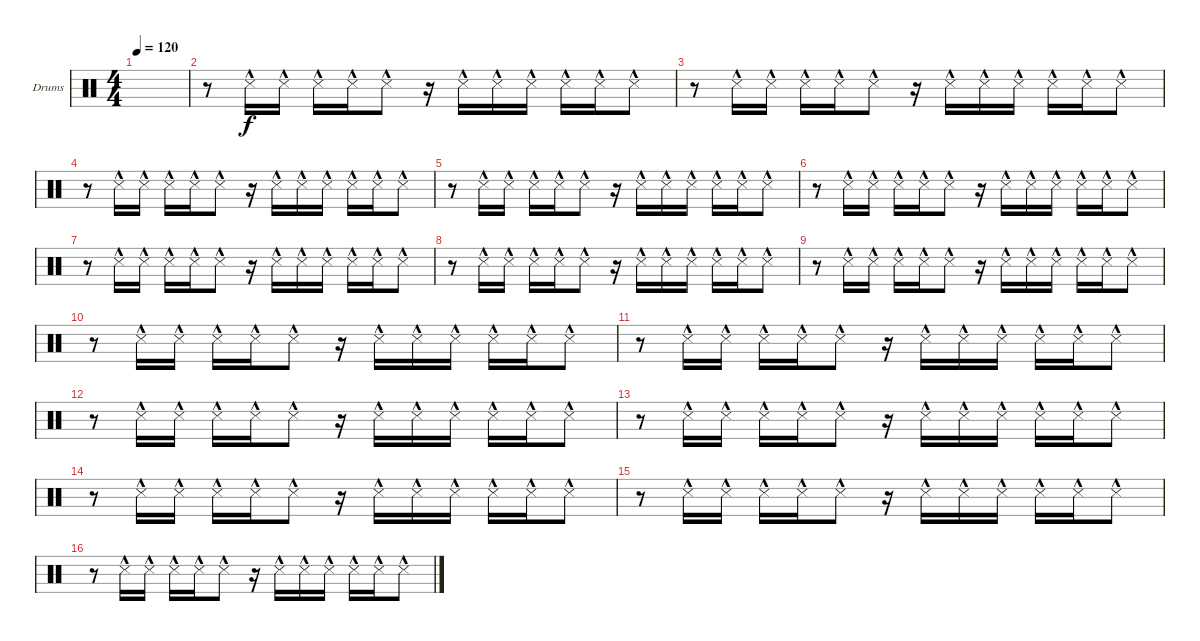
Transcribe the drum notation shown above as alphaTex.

\defaultSystemsLayout 4
\bracketExtendMode nobrackets
\firstSystemTrackNameOrientation horizontal
\otherSystemsTrackNameOrientation horizontal
\track ("Drumkit" "Drums") {instrument percussion}
\staff {score}
\articulation defaults
\ts (4 4)
\tempo 120
\clef neutral
\ks c
|
r.8 "Snare (side stick) 3"{hac}.16 "Snare (side stick) 3"{hac}.16 "Snare (side stick) 3"{hac}.16 "Snare (side stick) 3"{hac}.16 "Snare (side stick) 3"{hac}.8 r.16 "Snare (side stick) 3"{hac}.16 "Snare (side stick) 3"{hac}.16 "Snare (side stick) 3"{hac}.16 "Snare (side stick) 3"{hac}.16 "Snare (side stick) 3"{hac}.16 "Snare (side stick) 3"{hac}.8 |
r.8 "Snare (side stick) 3"{hac}.16 "Snare (side stick) 3"{hac}.16 "Snare (side stick) 3"{hac}.16 "Snare (side stick) 3"{hac}.16 "Snare (side stick) 3"{hac}.8 r.16 "Snare (side stick) 3"{hac}.16 "Snare (side stick) 3"{hac}.16 "Snare (side stick) 3"{hac}.16 "Snare (side stick) 3"{hac}.16 "Snare (side stick) 3"{hac}.16 "Snare (side stick) 3"{hac}.8 |
r.8 "Snare (side stick) 3"{hac}.16 "Snare (side stick) 3"{hac}.16 "Snare (side stick) 3"{hac}.16 "Snare (side stick) 3"{hac}.16 "Snare (side stick) 3"{hac}.8 r.16 "Snare (side stick) 3"{hac}.16 "Snare (side stick) 3"{hac}.16 "Snare (side stick) 3"{hac}.16 "Snare (side stick) 3"{hac}.16 "Snare (side stick) 3"{hac}.16 "Snare (side stick) 3"{hac}.8 |
r.8 "Snare (side stick) 3"{hac}.16 "Snare (side stick) 3"{hac}.16 "Snare (side stick) 3"{hac}.16 "Snare (side stick) 3"{hac}.16 "Snare (side stick) 3"{hac}.8 r.16 "Snare (side stick) 3"{hac}.16 "Snare (side stick) 3"{hac}.16 "Snare (side stick) 3"{hac}.16 "Snare (side stick) 3"{hac}.16 "Snare (side stick) 3"{hac}.16 "Snare (side stick) 3"{hac}.8 |
r.8 "Snare (side stick) 3"{hac}.16 "Snare (side stick) 3"{hac}.16 "Snare (side stick) 3"{hac}.16 "Snare (side stick) 3"{hac}.16 "Snare (side stick) 3"{hac}.8 r.16 "Snare (side stick) 3"{hac}.16 "Snare (side stick) 3"{hac}.16 "Snare (side stick) 3"{hac}.16 "Snare (side stick) 3"{hac}.16 "Snare (side stick) 3"{hac}.16 "Snare (side stick) 3"{hac}.8 |
r.8 "Snare (side stick) 3"{hac}.16 "Snare (side stick) 3"{hac}.16 "Snare (side stick) 3"{hac}.16 "Snare (side stick) 3"{hac}.16 "Snare (side stick) 3"{hac}.8 r.16 "Snare (side stick) 3"{hac}.16 "Snare (side stick) 3"{hac}.16 "Snare (side stick) 3"{hac}.16 "Snare (side stick) 3"{hac}.16 "Snare (side stick) 3"{hac}.16 "Snare (side stick) 3"{hac}.8 |
r.8 "Snare (side stick) 3"{hac}.16 "Snare (side stick) 3"{hac}.16 "Snare (side stick) 3"{hac}.16 "Snare (side stick) 3"{hac}.16 "Snare (side stick) 3"{hac}.8 r.16 "Snare (side stick) 3"{hac}.16 "Snare (side stick) 3"{hac}.16 "Snare (side stick) 3"{hac}.16 "Snare (side stick) 3"{hac}.16 "Snare (side stick) 3"{hac}.16 "Snare (side stick) 3"{hac}.8 |
\scale
0.474178 r.8 "Snare (side stick) 3"{hac}.16 "Snare (side stick) 3"{hac}.16 "Snare (side stick) 3"{hac}.16 "Snare (side stick) 3"{hac}.16 "Snare (side stick) 3"{hac}.8 r.16 "Snare (side stick) 3"{hac}.16 "Snare (side stick) 3"{hac}.16 "Snare (side stick) 3"{hac}.16 "Snare (side stick) 3"{hac}.16 "Snare (side stick) 3"{hac}.16 "Snare (side stick) 3"{hac}.8 |
\scale
0.262911 r.8 "Snare (side stick) 3"{hac}.16 "Snare (side stick) 3"{hac}.16 "Snare (side stick) 3"{hac}.16 "Snare (side stick) 3"{hac}.16 "Snare (side stick) 3"{hac}.8 r.16 "Snare (side stick) 3"{hac}.16 "Snare (side stick) 3"{hac}.16 "Snare (side stick) 3"{hac}.16 "Snare (side stick) 3"{hac}.16 "Snare (side stick) 3"{hac}.16 "Snare (side stick) 3"{hac}.8 |
\scale
0.262911 r.8 "Snare (side stick) 3"{hac}.16 "Snare (side stick) 3"{hac}.16 "Snare (side stick) 3"{hac}.16 "Snare (side stick) 3"{hac}.16 "Snare (side stick) 3"{hac}.8 r.16 "Snare (side stick) 3"{hac}.16 "Snare (side stick) 3"{hac}.16 "Snare (side stick) 3"{hac}.16 "Snare (side stick) 3"{hac}.16 "Snare (side stick) 3"{hac}.16 "Snare (side stick) 3"{hac}.8 |
\scale
0.333333 r.8 "Snare (side stick) 3"{hac}.16 "Snare (side stick) 3"{hac}.16 "Snare (side stick) 3"{hac}.16 "Snare (side stick) 3"{hac}.16 "Snare (side stick) 3"{hac}.8 r.16 "Snare (side stick) 3"{hac}.16 "Snare (side stick) 3"{hac}.16 "Snare (side stick) 3"{hac}.16 "Snare (side stick) 3"{hac}.16 "Snare (side stick) 3"{hac}.16 "Snare (side stick) 3"{hac}.8 |
\scale
0.333333 r.8 "Snare (side stick) 3"{hac}.16 "Snare (side stick) 3"{hac}.16 "Snare (side stick) 3"{hac}.16 "Snare (side stick) 3"{hac}.16 "Snare (side stick) 3"{hac}.8 r.16 "Snare (side stick) 3"{hac}.16 "Snare (side stick) 3"{hac}.16 "Snare (side stick) 3"{hac}.16 "Snare (side stick) 3"{hac}.16 "Snare (side stick) 3"{hac}.16 "Snare (side stick) 3"{hac}.8 |
\scale
0.333333 r.8 "Snare (side stick) 3"{hac}.16 "Snare (side stick) 3"{hac}.16 "Snare (side stick) 3"{hac}.16 "Snare (side stick) 3"{hac}.16 "Snare (side stick) 3"{hac}.8 r.16 "Snare (side stick) 3"{hac}.16 "Snare (side stick) 3"{hac}.16 "Snare (side stick) 3"{hac}.16 "Snare (side stick) 3"{hac}.16 "Snare (side stick) 3"{hac}.16 "Snare (side stick) 3"{hac}.8 |
\scale
0.333333 r.8 "Snare (side stick) 3"{hac}.16 "Snare (side stick) 3"{hac}.16 "Snare (side stick) 3"{hac}.16 "Snare (side stick) 3"{hac}.16 "Snare (side stick) 3"{hac}.8 r.16 "Snare (side stick) 3"{hac}.16 "Snare (side stick) 3"{hac}.16 "Snare (side stick) 3"{hac}.16 "Snare (side stick) 3"{hac}.16 "Snare (side stick) 3"{hac}.16 "Snare (side stick) 3"{hac}.8 |
\scale
0.333333 r.8 "Snare (side stick) 3"{hac}.16 "Snare (side stick) 3"{hac}.16 "Snare (side stick) 3"{hac}.16 "Snare (side stick) 3"{hac}.16 "Snare (side stick) 3"{hac}.8 r.16 "Snare (side stick) 3"{hac}.16 "Snare (side stick) 3"{hac}.16 "Snare (side stick) 3"{hac}.16 "Snare (side stick) 3"{hac}.16 "Snare (side stick) 3"{hac}.16 "Snare (side stick) 3"{hac}.8
